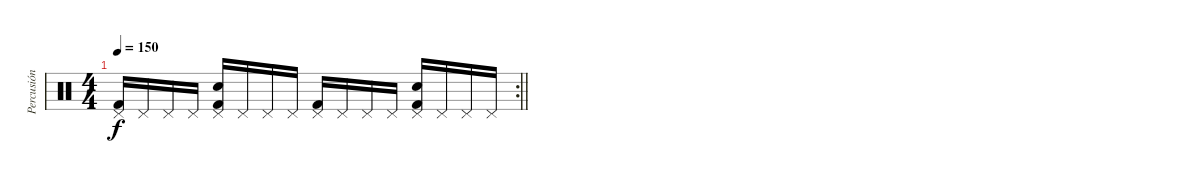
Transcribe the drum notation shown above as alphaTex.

\track ("Percusión" "Percusión") {instrument percussion}
\staff {score}
\articulation defaults
\rc 2
\ts (4 4)
\tempo 150
\clef neutral
\barLineRight lightlight
\ks c
("Pedal Hi-Hat (hit)" "Kick (hit) 2").16{dy f} "Pedal Hi-Hat (hit)".16 "Pedal Hi-Hat (hit)".16 "Pedal Hi-Hat (hit)".16 ("Pedal Hi-Hat (hit)" "Electric Snare (hit)" "Kick (hit) 2").16 "Pedal Hi-Hat (hit)".16 "Pedal Hi-Hat (hit)".16 "Pedal Hi-Hat (hit)".16 ("Pedal Hi-Hat (hit)" "Kick (hit) 2").16 "Pedal Hi-Hat (hit)".16 "Pedal Hi-Hat (hit)".16 "Pedal Hi-Hat (hit)".16 ("Pedal Hi-Hat (hit)" "Electric Snare (hit)" "Kick (hit) 2").16 "Pedal Hi-Hat (hit)".16 "Pedal Hi-Hat (hit)".16 "Pedal Hi-Hat (hit)".16
